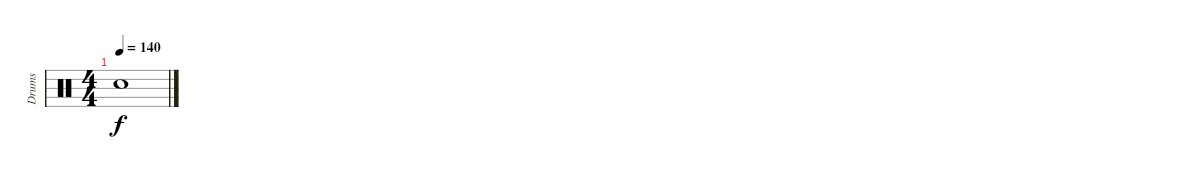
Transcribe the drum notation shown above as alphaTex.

\track ("Drums" "Drums") {instrument percussion}
\staff {score}
\articulation defaults
\ts (4 4)
\tempo 140
\clef neutral
\ks c "Snare (hit)"{t}.1{dy f}
